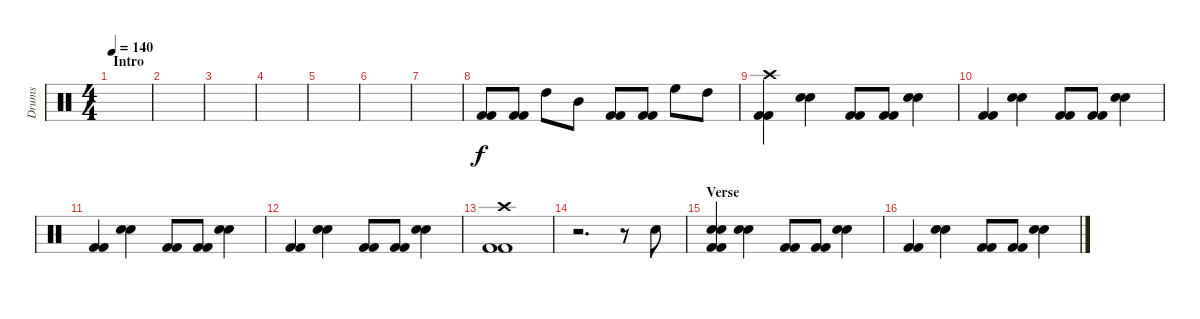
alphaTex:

\track ("Drums" "Drums") {instrument percussion}
\staff {score}
\articulation defaults
\ts (4 4)
\section ("" "Intro")
\tempo 140
\clef neutral
\ks c
|
|
|
|
|
|
|
("Kick (hit) 2" "Kick (hit) 2").8 ("Kick (hit) 2" "Kick (hit) 2").8 "High Tom (hit)".8 "Mid Tom (hit)".8 ("Kick (hit) 2" "Kick (hit) 2").8 ("Kick (hit) 2" "Kick (hit) 2").8 "High Floor Tom (hit)".8 "High Tom (hit)".8 |
("Crash high (hit)" "Kick (hit) 2" "Kick (hit) 2").4 ("Snare (hit) 2" "Snare (hit) 2").4 ("Kick (hit) 2" "Kick (hit) 2").8 ("Kick (hit) 2" "Kick (hit) 2").8 ("Snare (hit) 2" "Snare (hit) 2").4 |
("Kick (hit) 2" "Kick (hit) 2").4 ("Snare (hit) 2" "Snare (hit) 2").4 ("Kick (hit) 2" "Kick (hit) 2").8 ("Kick (hit) 2" "Kick (hit) 2").8 ("Snare (hit) 2" "Snare (hit) 2").4 |
("Kick (hit) 2" "Kick (hit) 2").4 ("Snare (hit) 2" "Snare (hit) 2").4 ("Kick (hit) 2" "Kick (hit) 2").8 ("Kick (hit) 2" "Kick (hit) 2").8 ("Snare (hit) 2" "Snare (hit) 2").4 |
("Kick (hit) 2" "Kick (hit) 2").4 ("Snare (hit) 2" "Snare (hit) 2").4 ("Kick (hit) 2" "Kick (hit) 2").8 ("Kick (hit) 2" "Kick (hit) 2").8 ("Snare (hit) 2" "Snare (hit) 2").4 |
("Crash high (hit)" "Kick (hit) 2" "Kick (hit) 2").1 |
r.2{d} r.8 "Snare (hit) 2".8 |
\section ("" "Verse")
("Snare (hit) 2" "Snare (hit) 2" "Kick (hit) 2" "Kick (hit) 2").4 ("Snare (hit) 2" "Snare (hit) 2").4 ("Kick (hit) 2" "Kick (hit) 2").8 ("Kick (hit) 2" "Kick (hit) 2").8 ("Snare (hit) 2" "Snare (hit) 2").4 |
("Kick (hit) 2" "Kick (hit) 2").4 ("Snare (hit) 2" "Snare (hit) 2").4 ("Kick (hit) 2" "Kick (hit) 2").8 ("Kick (hit) 2" "Kick (hit) 2").8 ("Snare (hit) 2" "Snare (hit) 2").4
